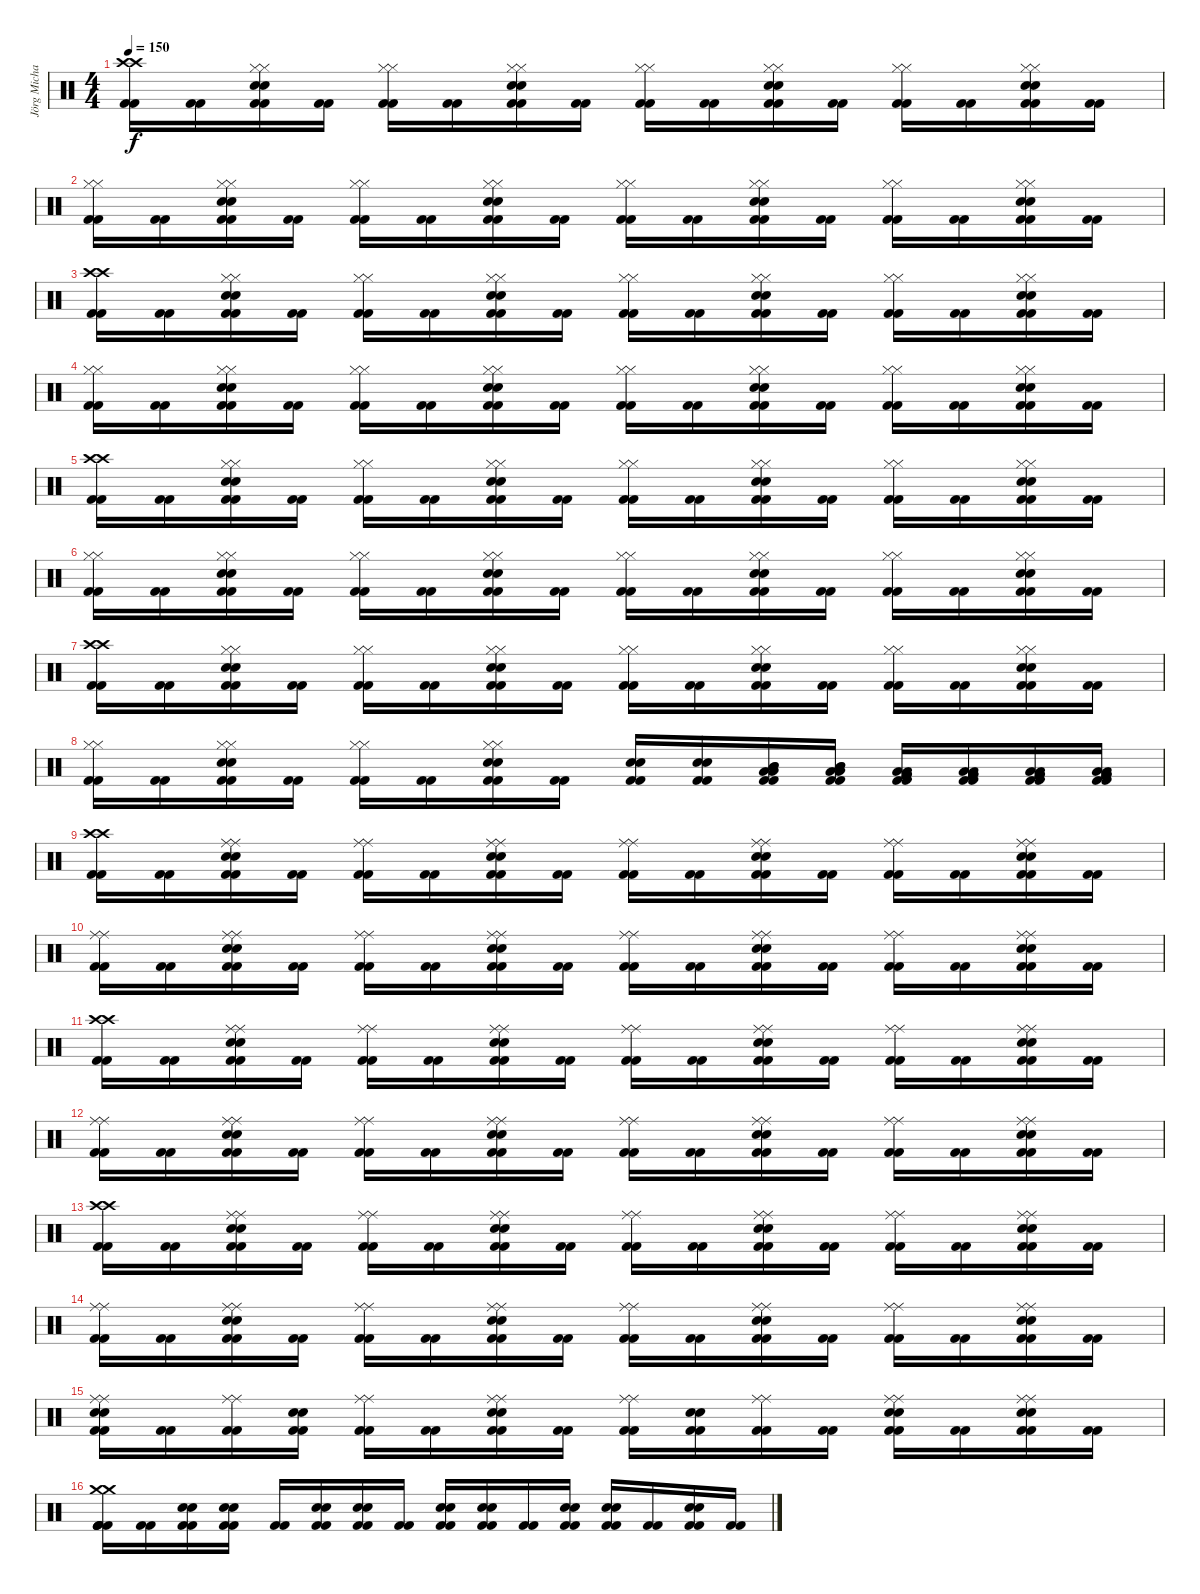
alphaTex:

\track ("Jörg Michael" "Jörg Micha") {instrument percussion}
\staff {score}
\articulation defaults
\ts (4 4)
\tempo 150
\clef neutral
\ks c
("Kick (hit) 2" "Crash high (hit)" "Kick (hit) 2" "Crash high (hit)").16{dy f} ("Kick (hit) 2" "Kick (hit) 2").16 ("Kick (hit) 2" "Snare (hit) 2" "Hi-Hat (closed)" "Kick (hit) 2" "Snare (hit) 2" "Hi-Hat (closed)").16 ("Kick (hit) 2" "Kick (hit) 2").16 ("Kick (hit) 2" "Hi-Hat (closed)" "Kick (hit) 2" "Hi-Hat (closed)").16 ("Kick (hit) 2" "Kick (hit) 2").16 ("Kick (hit) 2" "Snare (hit) 2" "Hi-Hat (closed)" "Kick (hit) 2" "Snare (hit) 2" "Hi-Hat (closed)").16 ("Kick (hit) 2" "Kick (hit) 2").16 ("Kick (hit) 2" "Hi-Hat (closed)" "Kick (hit) 2" "Hi-Hat (closed)").16 ("Kick (hit) 2" "Kick (hit) 2").16 ("Kick (hit) 2" "Snare (hit) 2" "Hi-Hat (closed)" "Kick (hit) 2" "Snare (hit) 2" "Hi-Hat (closed)").16 ("Kick (hit) 2" "Kick (hit) 2").16 ("Kick (hit) 2" "Hi-Hat (closed)" "Kick (hit) 2" "Hi-Hat (closed)").16 ("Kick (hit) 2" "Kick (hit) 2").16 ("Kick (hit) 2" "Snare (hit) 2" "Hi-Hat (closed)" "Kick (hit) 2" "Snare (hit) 2" "Hi-Hat (closed)").16 ("Kick (hit) 2" "Kick (hit) 2").16 |
("Kick (hit) 2" "Hi-Hat (closed)" "Kick (hit) 2" "Hi-Hat (closed)").16 ("Kick (hit) 2" "Kick (hit) 2").16 ("Kick (hit) 2" "Hi-Hat (closed)" "Snare (hit) 2" "Kick (hit) 2" "Hi-Hat (closed)" "Snare (hit) 2").16 ("Kick (hit) 2" "Kick (hit) 2").16 ("Kick (hit) 2" "Hi-Hat (closed)" "Kick (hit) 2" "Hi-Hat (closed)").16 ("Kick (hit) 2" "Kick (hit) 2").16 ("Kick (hit) 2" "Snare (hit) 2" "Hi-Hat (closed)" "Kick (hit) 2" "Snare (hit) 2" "Hi-Hat (closed)").16 ("Kick (hit) 2" "Kick (hit) 2").16 ("Kick (hit) 2" "Hi-Hat (closed)" "Kick (hit) 2" "Hi-Hat (closed)").16 ("Kick (hit) 2" "Kick (hit) 2").16 ("Kick (hit) 2" "Snare (hit) 2" "Hi-Hat (closed)" "Kick (hit) 2" "Snare (hit) 2" "Hi-Hat (closed)").16 ("Kick (hit) 2" "Kick (hit) 2").16 ("Kick (hit) 2" "Hi-Hat (closed)" "Kick (hit) 2" "Hi-Hat (closed)").16 ("Kick (hit) 2" "Kick (hit) 2").16 ("Kick (hit) 2" "Snare (hit) 2" "Hi-Hat (closed)" "Kick (hit) 2" "Snare (hit) 2" "Hi-Hat (closed)").16 ("Kick (hit) 2" "Kick (hit) 2").16 |
("Kick (hit) 2" "Crash high (hit)" "Kick (hit) 2" "Crash high (hit)").16 ("Kick (hit) 2" "Kick (hit) 2").16 ("Kick (hit) 2" "Snare (hit) 2" "Hi-Hat (closed)" "Kick (hit) 2" "Snare (hit) 2" "Hi-Hat (closed)").16 ("Kick (hit) 2" "Kick (hit) 2").16 ("Kick (hit) 2" "Hi-Hat (closed)" "Kick (hit) 2" "Hi-Hat (closed)").16 ("Kick (hit) 2" "Kick (hit) 2").16 ("Kick (hit) 2" "Hi-Hat (closed)" "Snare (hit) 2" "Kick (hit) 2" "Hi-Hat (closed)" "Snare (hit) 2").16 ("Kick (hit) 2" "Kick (hit) 2").16 ("Kick (hit) 2" "Hi-Hat (closed)" "Kick (hit) 2" "Hi-Hat (closed)").16 ("Kick (hit) 2" "Kick (hit) 2").16 ("Kick (hit) 2" "Hi-Hat (closed)" "Snare (hit) 2" "Kick (hit) 2" "Hi-Hat (closed)" "Snare (hit) 2").16 ("Kick (hit) 2" "Kick (hit) 2").16 ("Kick (hit) 2" "Hi-Hat (closed)" "Kick (hit) 2" "Hi-Hat (closed)").16 ("Kick (hit) 2" "Kick (hit) 2").16 ("Kick (hit) 2" "Hi-Hat (closed)" "Snare (hit) 2" "Kick (hit) 2" "Hi-Hat (closed)" "Snare (hit) 2").16 ("Kick (hit) 2" "Kick (hit) 2").16 |
("Kick (hit) 2" "Hi-Hat (closed)" "Kick (hit) 2" "Hi-Hat (closed)").16 ("Kick (hit) 2" "Kick (hit) 2").16 ("Kick (hit) 2" "Snare (hit) 2" "Hi-Hat (closed)" "Kick (hit) 2" "Snare (hit) 2" "Hi-Hat (closed)").16 ("Kick (hit) 2" "Kick (hit) 2").16 ("Kick (hit) 2" "Hi-Hat (closed)" "Kick (hit) 2" "Hi-Hat (closed)").16 ("Kick (hit) 2" "Kick (hit) 2").16 ("Kick (hit) 2" "Hi-Hat (closed)" "Snare (hit) 2" "Kick (hit) 2" "Hi-Hat (closed)" "Snare (hit) 2").16 ("Kick (hit) 2" "Kick (hit) 2").16 ("Kick (hit) 2" "Hi-Hat (closed)" "Kick (hit) 2" "Hi-Hat (closed)").16 ("Kick (hit) 2" "Kick (hit) 2").16 ("Kick (hit) 2" "Snare (hit) 2" "Hi-Hat (closed)" "Kick (hit) 2" "Snare (hit) 2" "Hi-Hat (closed)").16 ("Kick (hit) 2" "Kick (hit) 2").16 ("Kick (hit) 2" "Hi-Hat (closed)" "Kick (hit) 2" "Hi-Hat (closed)").16 ("Kick (hit) 2" "Kick (hit) 2").16 ("Kick (hit) 2" "Snare (hit) 2" "Hi-Hat (closed)" "Kick (hit) 2" "Snare (hit) 2" "Hi-Hat (closed)").16 ("Kick (hit) 2" "Kick (hit) 2").16 |
("Kick (hit) 2" "Crash high (hit)" "Kick (hit) 2" "Crash high (hit)").16 ("Kick (hit) 2" "Kick (hit) 2").16 ("Kick (hit) 2" "Hi-Hat (closed)" "Snare (hit) 2" "Kick (hit) 2" "Hi-Hat (closed)" "Snare (hit) 2").16 ("Kick (hit) 2" "Kick (hit) 2").16 ("Kick (hit) 2" "Hi-Hat (closed)" "Kick (hit) 2" "Hi-Hat (closed)").16 ("Kick (hit) 2" "Kick (hit) 2").16 ("Kick (hit) 2" "Hi-Hat (closed)" "Snare (hit) 2" "Kick (hit) 2" "Hi-Hat (closed)" "Snare (hit) 2").16 ("Kick (hit) 2" "Kick (hit) 2").16 ("Kick (hit) 2" "Hi-Hat (closed)" "Kick (hit) 2" "Hi-Hat (closed)").16 ("Kick (hit) 2" "Kick (hit) 2").16 ("Kick (hit) 2" "Snare (hit) 2" "Hi-Hat (closed)" "Kick (hit) 2" "Snare (hit) 2" "Hi-Hat (closed)").16 ("Kick (hit) 2" "Kick (hit) 2").16 ("Kick (hit) 2" "Hi-Hat (closed)" "Kick (hit) 2" "Hi-Hat (closed)").16 ("Kick (hit) 2" "Kick (hit) 2").16 ("Kick (hit) 2" "Snare (hit) 2" "Hi-Hat (closed)" "Kick (hit) 2" "Snare (hit) 2" "Hi-Hat (closed)").16 ("Kick (hit) 2" "Kick (hit) 2").16 |
("Kick (hit) 2" "Hi-Hat (closed)" "Kick (hit) 2" "Hi-Hat (closed)").16 ("Kick (hit) 2" "Kick (hit) 2").16 ("Kick (hit) 2" "Hi-Hat (closed)" "Snare (hit) 2" "Kick (hit) 2" "Hi-Hat (closed)" "Snare (hit) 2").16 ("Kick (hit) 2" "Kick (hit) 2").16 ("Kick (hit) 2" "Hi-Hat (closed)" "Kick (hit) 2" "Hi-Hat (closed)").16 ("Kick (hit) 2" "Kick (hit) 2").16 ("Kick (hit) 2" "Hi-Hat (closed)" "Snare (hit) 2" "Kick (hit) 2" "Hi-Hat (closed)" "Snare (hit) 2").16 ("Kick (hit) 2" "Kick (hit) 2").16 ("Kick (hit) 2" "Hi-Hat (closed)" "Kick (hit) 2" "Hi-Hat (closed)").16 ("Kick (hit) 2" "Kick (hit) 2").16 ("Kick (hit) 2" "Snare (hit) 2" "Hi-Hat (closed)" "Kick (hit) 2" "Snare (hit) 2" "Hi-Hat (closed)").16 ("Kick (hit) 2" "Kick (hit) 2").16 ("Kick (hit) 2" "Hi-Hat (closed)" "Kick (hit) 2" "Hi-Hat (closed)").16 ("Kick (hit) 2" "Kick (hit) 2").16 ("Kick (hit) 2" "Snare (hit) 2" "Hi-Hat (closed)" "Kick (hit) 2" "Snare (hit) 2" "Hi-Hat (closed)").16 ("Kick (hit) 2" "Kick (hit) 2").16 |
("Kick (hit) 2" "Crash high (hit)" "Kick (hit) 2" "Crash high (hit)").16 ("Kick (hit) 2" "Kick (hit) 2").16 ("Kick (hit) 2" "Snare (hit) 2" "Hi-Hat (closed)" "Kick (hit) 2" "Snare (hit) 2" "Hi-Hat (closed)").16 ("Kick (hit) 2" "Kick (hit) 2").16 ("Kick (hit) 2" "Hi-Hat (closed)" "Kick (hit) 2" "Hi-Hat (closed)").16 ("Kick (hit) 2" "Kick (hit) 2").16 ("Kick (hit) 2" "Hi-Hat (closed)" "Snare (hit) 2" "Kick (hit) 2" "Hi-Hat (closed)" "Snare (hit) 2").16 ("Kick (hit) 2" "Kick (hit) 2").16 ("Kick (hit) 2" "Hi-Hat (closed)" "Kick (hit) 2" "Hi-Hat (closed)").16 ("Kick (hit) 2" "Kick (hit) 2").16 ("Kick (hit) 2" "Hi-Hat (closed)" "Snare (hit) 2" "Kick (hit) 2" "Hi-Hat (closed)" "Snare (hit) 2").16 ("Kick (hit) 2" "Kick (hit) 2").16 ("Kick (hit) 2" "Hi-Hat (closed)" "Kick (hit) 2" "Hi-Hat (closed)").16 ("Kick (hit) 2" "Kick (hit) 2").16 ("Kick (hit) 2" "Snare (hit) 2" "Hi-Hat (closed)" "Kick (hit) 2" "Snare (hit) 2" "Hi-Hat (closed)").16 ("Kick (hit) 2" "Kick (hit) 2").16 |
("Kick (hit) 2" "Hi-Hat (closed)" "Kick (hit) 2" "Hi-Hat (closed)").16 ("Kick (hit) 2" "Kick (hit) 2").16 ("Kick (hit) 2" "Snare (hit) 2" "Hi-Hat (closed)" "Kick (hit) 2" "Snare (hit) 2" "Hi-Hat (closed)").16 ("Kick (hit) 2" "Kick (hit) 2").16 ("Kick (hit) 2" "Hi-Hat (closed)" "Kick (hit) 2" "Hi-Hat (closed)").16 ("Kick (hit) 2" "Kick (hit) 2").16 ("Kick (hit) 2" "Snare (hit) 2" "Hi-Hat (closed)" "Kick (hit) 2" "Snare (hit) 2" "Hi-Hat (closed)").16 ("Kick (hit) 2" "Kick (hit) 2").16 ("Kick (hit) 2" "Snare (hit) 2" "Kick (hit) 2" "Snare (hit) 2").16 ("Kick (hit) 2" "Snare (hit) 2" "Kick (hit) 2" "Snare (hit) 2").16 ("Kick (hit) 2" "Mid Tom (hit)" "Low Tom (hit)" "Kick (hit) 2" "Mid Tom (hit)" "Low Tom (hit)").16 ("Kick (hit) 2" "Low Tom (hit)" "Mid Tom (hit)" "Kick (hit) 2" "Low Tom (hit)" "Mid Tom (hit)").16 ("Kick (hit) 2" "Very Low Tom (hit)" "Low Tom (hit)" "Kick (hit) 2" "Very Low Tom (hit)" "Low Tom (hit)").16 ("Kick (hit) 2" "Very Low Tom (hit)" "Low Tom (hit)" "Kick (hit) 2" "Very Low Tom (hit)" "Low Tom (hit)").16 ("Kick (hit) 2" "Low Floor Tom (hit)" "Very Low Tom (hit)" "Kick (hit) 2" "Low Floor Tom (hit)" "Very Low Tom (hit)").16 ("Kick (hit) 2" "Very Low Tom (hit)" "Low Floor Tom (hit)" "Kick (hit) 2" "Very Low Tom (hit)" "Low Floor Tom (hit)").16 |
("Kick (hit) 2" "Crash high (hit)" "Kick (hit) 2" "Crash high (hit)").16 ("Kick (hit) 2" "Kick (hit) 2").16 ("Kick (hit) 2" "Snare (hit) 2" "Ride (middle)" "Kick (hit) 2" "Snare (hit) 2" "Ride (middle)").16 ("Kick (hit) 2" "Kick (hit) 2").16 ("Kick (hit) 2" "Ride (middle)" "Kick (hit) 2" "Ride (middle)").16 ("Kick (hit) 2" "Kick (hit) 2").16 ("Kick (hit) 2" "Snare (hit) 2" "Ride (middle)" "Kick (hit) 2" "Snare (hit) 2" "Ride (middle)").16 ("Kick (hit) 2" "Kick (hit) 2").16 ("Kick (hit) 2" "Ride (middle)" "Kick (hit) 2" "Ride (middle)").16 ("Kick (hit) 2" "Kick (hit) 2").16 ("Kick (hit) 2" "Snare (hit) 2" "Ride (middle)" "Kick (hit) 2" "Snare (hit) 2" "Ride (middle)").16 ("Kick (hit) 2" "Kick (hit) 2").16 ("Kick (hit) 2" "Ride (middle)" "Kick (hit) 2" "Ride (middle)").16 ("Kick (hit) 2" "Kick (hit) 2").16 ("Kick (hit) 2" "Snare (hit) 2" "Ride (middle)" "Kick (hit) 2" "Snare (hit) 2" "Ride (middle)").16 ("Kick (hit) 2" "Kick (hit) 2").16 |
("Kick (hit) 2" "Ride (middle)" "Kick (hit) 2" "Ride (middle)").16 ("Kick (hit) 2" "Kick (hit) 2").16 ("Kick (hit) 2" "Ride (middle)" "Snare (hit) 2" "Kick (hit) 2" "Ride (middle)" "Snare (hit) 2").16 ("Kick (hit) 2" "Kick (hit) 2").16 ("Kick (hit) 2" "Ride (middle)" "Kick (hit) 2" "Ride (middle)").16 ("Kick (hit) 2" "Kick (hit) 2").16 ("Kick (hit) 2" "Snare (hit) 2" "Ride (middle)" "Kick (hit) 2" "Snare (hit) 2" "Ride (middle)").16 ("Kick (hit) 2" "Kick (hit) 2").16 ("Kick (hit) 2" "Ride (middle)" "Kick (hit) 2" "Ride (middle)").16 ("Kick (hit) 2" "Kick (hit) 2").16 ("Kick (hit) 2" "Snare (hit) 2" "Ride (middle)" "Kick (hit) 2" "Snare (hit) 2" "Ride (middle)").16 ("Kick (hit) 2" "Kick (hit) 2").16 ("Kick (hit) 2" "Ride (middle)" "Kick (hit) 2" "Ride (middle)").16 ("Kick (hit) 2" "Kick (hit) 2").16 ("Kick (hit) 2" "Snare (hit) 2" "Ride (middle)" "Kick (hit) 2" "Snare (hit) 2" "Ride (middle)").16 ("Kick (hit) 2" "Kick (hit) 2").16 |
("Kick (hit) 2" "Crash high (hit)" "Kick (hit) 2" "Crash high (hit)").16 ("Kick (hit) 2" "Kick (hit) 2").16 ("Kick (hit) 2" "Snare (hit) 2" "Ride (middle)" "Kick (hit) 2" "Snare (hit) 2" "Ride (middle)").16 ("Kick (hit) 2" "Kick (hit) 2").16 ("Kick (hit) 2" "Ride (middle)" "Kick (hit) 2" "Ride (middle)").16 ("Kick (hit) 2" "Kick (hit) 2").16 ("Kick (hit) 2" "Ride (middle)" "Snare (hit) 2" "Kick (hit) 2" "Ride (middle)" "Snare (hit) 2").16 ("Kick (hit) 2" "Kick (hit) 2").16 ("Kick (hit) 2" "Ride (middle)" "Kick (hit) 2" "Ride (middle)").16 ("Kick (hit) 2" "Kick (hit) 2").16 ("Kick (hit) 2" "Ride (middle)" "Snare (hit) 2" "Kick (hit) 2" "Ride (middle)" "Snare (hit) 2").16 ("Kick (hit) 2" "Kick (hit) 2").16 ("Kick (hit) 2" "Ride (middle)" "Kick (hit) 2" "Ride (middle)").16 ("Kick (hit) 2" "Kick (hit) 2").16 ("Kick (hit) 2" "Ride (middle)" "Snare (hit) 2" "Kick (hit) 2" "Ride (middle)" "Snare (hit) 2").16 ("Kick (hit) 2" "Kick (hit) 2").16 |
("Kick (hit) 2" "Ride (middle)" "Kick (hit) 2" "Ride (middle)").16 ("Kick (hit) 2" "Kick (hit) 2").16 ("Kick (hit) 2" "Snare (hit) 2" "Ride (middle)" "Kick (hit) 2" "Snare (hit) 2" "Ride (middle)").16 ("Kick (hit) 2" "Kick (hit) 2").16 ("Kick (hit) 2" "Ride (middle)" "Kick (hit) 2" "Ride (middle)").16 ("Kick (hit) 2" "Kick (hit) 2").16 ("Kick (hit) 2" "Ride (middle)" "Snare (hit) 2" "Kick (hit) 2" "Ride (middle)" "Snare (hit) 2").16 ("Kick (hit) 2" "Kick (hit) 2").16 ("Kick (hit) 2" "Ride (middle)" "Kick (hit) 2" "Ride (middle)").16 ("Kick (hit) 2" "Kick (hit) 2").16 ("Kick (hit) 2" "Snare (hit) 2" "Ride (middle)" "Kick (hit) 2" "Snare (hit) 2" "Ride (middle)").16 ("Kick (hit) 2" "Kick (hit) 2").16 ("Kick (hit) 2" "Ride (middle)" "Kick (hit) 2" "Ride (middle)").16 ("Kick (hit) 2" "Kick (hit) 2").16 ("Kick (hit) 2" "Snare (hit) 2" "Ride (middle)" "Kick (hit) 2" "Snare (hit) 2" "Ride (middle)").16 ("Kick (hit) 2" "Kick (hit) 2").16 |
("Kick (hit) 2" "Crash high (hit)" "Kick (hit) 2" "Crash high (hit)").16 ("Kick (hit) 2" "Kick (hit) 2").16 ("Kick (hit) 2" "Ride (middle)" "Snare (hit) 2" "Kick (hit) 2" "Ride (middle)" "Snare (hit) 2").16 ("Kick (hit) 2" "Kick (hit) 2").16 ("Kick (hit) 2" "Ride (middle)" "Kick (hit) 2" "Ride (middle)").16 ("Kick (hit) 2" "Kick (hit) 2").16 ("Kick (hit) 2" "Ride (middle)" "Snare (hit) 2" "Kick (hit) 2" "Ride (middle)" "Snare (hit) 2").16 ("Kick (hit) 2" "Kick (hit) 2").16 ("Kick (hit) 2" "Ride (middle)" "Kick (hit) 2" "Ride (middle)").16 ("Kick (hit) 2" "Kick (hit) 2").16 ("Kick (hit) 2" "Snare (hit) 2" "Ride (middle)" "Kick (hit) 2" "Snare (hit) 2" "Ride (middle)").16 ("Kick (hit) 2" "Kick (hit) 2").16 ("Kick (hit) 2" "Ride (middle)" "Kick (hit) 2" "Ride (middle)").16 ("Kick (hit) 2" "Kick (hit) 2").16 ("Kick (hit) 2" "Snare (hit) 2" "Ride (middle)" "Kick (hit) 2" "Snare (hit) 2" "Ride (middle)").16 ("Kick (hit) 2" "Kick (hit) 2").16 |
("Kick (hit) 2" "Ride (middle)" "Kick (hit) 2" "Ride (middle)").16 ("Kick (hit) 2" "Kick (hit) 2").16 ("Kick (hit) 2" "Ride (middle)" "Snare (hit) 2" "Kick (hit) 2" "Ride (middle)" "Snare (hit) 2").16 ("Kick (hit) 2" "Kick (hit) 2").16 ("Kick (hit) 2" "Ride (middle)" "Kick (hit) 2" "Ride (middle)").16 ("Kick (hit) 2" "Kick (hit) 2").16 ("Kick (hit) 2" "Ride (middle)" "Snare (hit) 2" "Kick (hit) 2" "Ride (middle)" "Snare (hit) 2").16 ("Kick (hit) 2" "Kick (hit) 2").16 ("Kick (hit) 2" "Ride (middle)" "Kick (hit) 2" "Ride (middle)").16 ("Kick (hit) 2" "Kick (hit) 2").16 ("Kick (hit) 2" "Snare (hit) 2" "Ride (middle)" "Kick (hit) 2" "Snare (hit) 2" "Ride (middle)").16 ("Kick (hit) 2" "Kick (hit) 2").16 ("Kick (hit) 2" "Ride (middle)" "Kick (hit) 2" "Ride (middle)").16 ("Kick (hit) 2" "Kick (hit) 2").16 ("Kick (hit) 2" "Snare (hit) 2" "Ride (middle)" "Kick (hit) 2" "Snare (hit) 2" "Ride (middle)").16 ("Kick (hit) 2" "Kick (hit) 2").16 |
("Snare (hit) 2" "Ride (middle)" "Kick (hit) 2" "Snare (hit) 2" "Ride (middle)" "Kick (hit) 2").16 ("Kick (hit) 2" "Kick (hit) 2").16 ("Ride (middle)" "Kick (hit) 2" "Ride (middle)" "Kick (hit) 2").16 ("Snare (hit) 2" "Kick (hit) 2" "Snare (hit) 2" "Kick (hit) 2").16 ("Ride (middle)" "Kick (hit) 2" "Ride (middle)" "Kick (hit) 2").16 ("Kick (hit) 2" "Kick (hit) 2").16 ("Snare (hit) 2" "Ride (middle)" "Kick (hit) 2" "Snare (hit) 2" "Ride (middle)" "Kick (hit) 2").16 ("Kick (hit) 2" "Kick (hit) 2").16 ("Ride (middle)" "Kick (hit) 2" "Ride (middle)" "Kick (hit) 2").16 ("Snare (hit) 2" "Kick (hit) 2" "Snare (hit) 2" "Kick (hit) 2").16 ("Ride (middle)" "Kick (hit) 2" "Ride (middle)" "Kick (hit) 2").16 ("Kick (hit) 2" "Kick (hit) 2").16 ("Snare (hit) 2" "Ride (middle)" "Kick (hit) 2" "Snare (hit) 2" "Ride (middle)" "Kick (hit) 2").16 ("Kick (hit) 2" "Kick (hit) 2").16 ("Snare (hit) 2" "Ride (middle)" "Kick (hit) 2" "Snare (hit) 2" "Ride (middle)" "Kick (hit) 2").16 ("Kick (hit) 2" "Kick (hit) 2").16 |
("Crash medium (hit)" "Kick (hit) 2" "Kick (hit) 2" "Crash medium (hit)" "Kick (hit) 2" "Kick (hit) 2").16 ("Kick (hit) 2" "Kick (hit) 2").16 ("Snare (hit) 2" "Kick (hit) 2" "Snare (hit) 2" "Kick (hit) 2").16 ("Snare (hit) 2" "Kick (hit) 2" "Snare (hit) 2" "Kick (hit) 2").16 ("Kick (hit) 2" "Kick (hit) 2").16 ("Snare (hit) 2" "Kick (hit) 2" "Snare (hit) 2" "Kick (hit) 2").16 ("Snare (hit) 2" "Kick (hit) 2" "Snare (hit) 2" "Kick (hit) 2").16 ("Kick (hit) 2" "Kick (hit) 2").16 ("Snare (hit) 2" "Kick (hit) 2" "Snare (hit) 2" "Kick (hit) 2").16 ("Snare (hit) 2" "Kick (hit) 2" "Snare (hit) 2" "Kick (hit) 2").16 ("Kick (hit) 2" "Kick (hit) 2").16 ("Snare (hit) 2" "Kick (hit) 2" "Snare (hit) 2" "Kick (hit) 2").16 ("Snare (hit) 2" "Kick (hit) 2" "Snare (hit) 2" "Kick (hit) 2").16 ("Kick (hit) 2" "Kick (hit) 2").16 ("Snare (hit) 2" "Kick (hit) 2" "Snare (hit) 2" "Kick (hit) 2").16 ("Kick (hit) 2" "Kick (hit) 2").16
